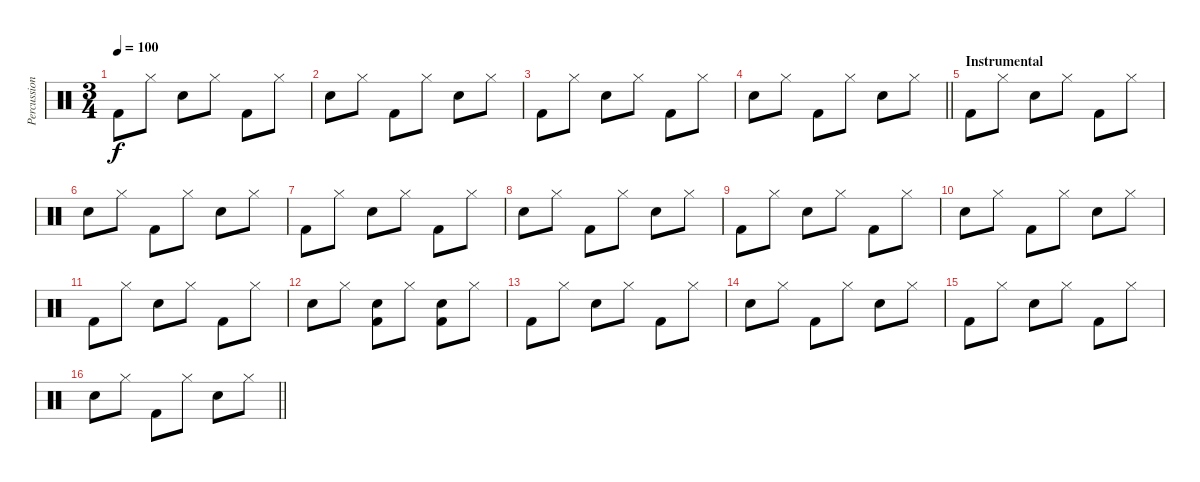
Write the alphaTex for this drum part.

\track ("Percussion" "Percussion") {instrument percussion}
\staff {score}
\articulation defaults
\ts (3 4)
\tempo 100
\clef neutral
\ks c "Kick (hit) 2".8{dy f} "Hi-Hat (closed)".8 "Snare (hit) 2".8 "Hi-Hat (closed)".8 "Kick (hit) 2".8 "Hi-Hat (closed)".8
|
"Snare (hit) 2".8 "Hi-Hat (closed)".8 "Kick (hit) 2".8 "Hi-Hat (closed)".8 "Snare (hit) 2".8 "Hi-Hat (closed)".8 |
"Kick (hit) 2".8 "Hi-Hat (closed)".8 "Snare (hit) 2".8 "Hi-Hat (closed)".8 "Kick (hit) 2".8 "Hi-Hat (closed)".8 |
\barLineRight lightlight "Snare (hit) 2".8 "Hi-Hat (closed)".8 "Kick (hit) 2".8 "Hi-Hat (closed)".8 "Snare (hit) 2".8 "Hi-Hat (closed)".8
|
\section ("" "Instrumental")
"Kick (hit) 2".8 "Hi-Hat (closed)".8 "Snare (hit) 2".8 "Hi-Hat (closed)".8 "Kick (hit) 2".8 "Hi-Hat (closed)".8 |
"Snare (hit) 2".8 "Hi-Hat (closed)".8 "Kick (hit) 2".8 "Hi-Hat (closed)".8 "Snare (hit) 2".8 "Hi-Hat (closed)".8 |
"Kick (hit) 2".8 "Hi-Hat (closed)".8 "Snare (hit) 2".8 "Hi-Hat (closed)".8 "Kick (hit) 2".8 "Hi-Hat (closed)".8 |
"Snare (hit) 2".8 "Hi-Hat (closed)".8 "Kick (hit) 2".8 "Hi-Hat (closed)".8 "Snare (hit) 2".8 "Hi-Hat (closed)".8 |
"Kick (hit) 2".8 "Hi-Hat (closed)".8 "Snare (hit) 2".8 "Hi-Hat (closed)".8 "Kick (hit) 2".8 "Hi-Hat (closed)".8 |
"Snare (hit) 2".8 "Hi-Hat (closed)".8 "Kick (hit) 2".8 "Hi-Hat (closed)".8 "Snare (hit) 2".8 "Hi-Hat (closed)".8 |
"Kick (hit) 2".8 "Hi-Hat (closed)".8 "Snare (hit) 2".8 "Hi-Hat (closed)".8 "Kick (hit) 2".8 "Hi-Hat (closed)".8 |
"Snare (hit) 2".8 "Hi-Hat (closed)".8 ("Snare (hit) 2" "Kick (hit) 2").8 "Hi-Hat (closed)".8 ("Snare (hit) 2" "Kick (hit) 2").8 "Hi-Hat (closed)".8 |
"Kick (hit) 2".8 "Hi-Hat (closed)".8 "Snare (hit) 2".8 "Hi-Hat (closed)".8 "Kick (hit) 2".8 "Hi-Hat (closed)".8 |
"Snare (hit) 2".8 "Hi-Hat (closed)".8 "Kick (hit) 2".8 "Hi-Hat (closed)".8 "Snare (hit) 2".8 "Hi-Hat (closed)".8 |
"Kick (hit) 2".8 "Hi-Hat (closed)".8 "Snare (hit) 2".8 "Hi-Hat (closed)".8 "Kick (hit) 2".8 "Hi-Hat (closed)".8 |
\barLineRight lightlight "Snare (hit) 2".8 "Hi-Hat (closed)".8 "Kick (hit) 2".8 "Hi-Hat (closed)".8 "Snare (hit) 2".8 "Hi-Hat (closed)".8
